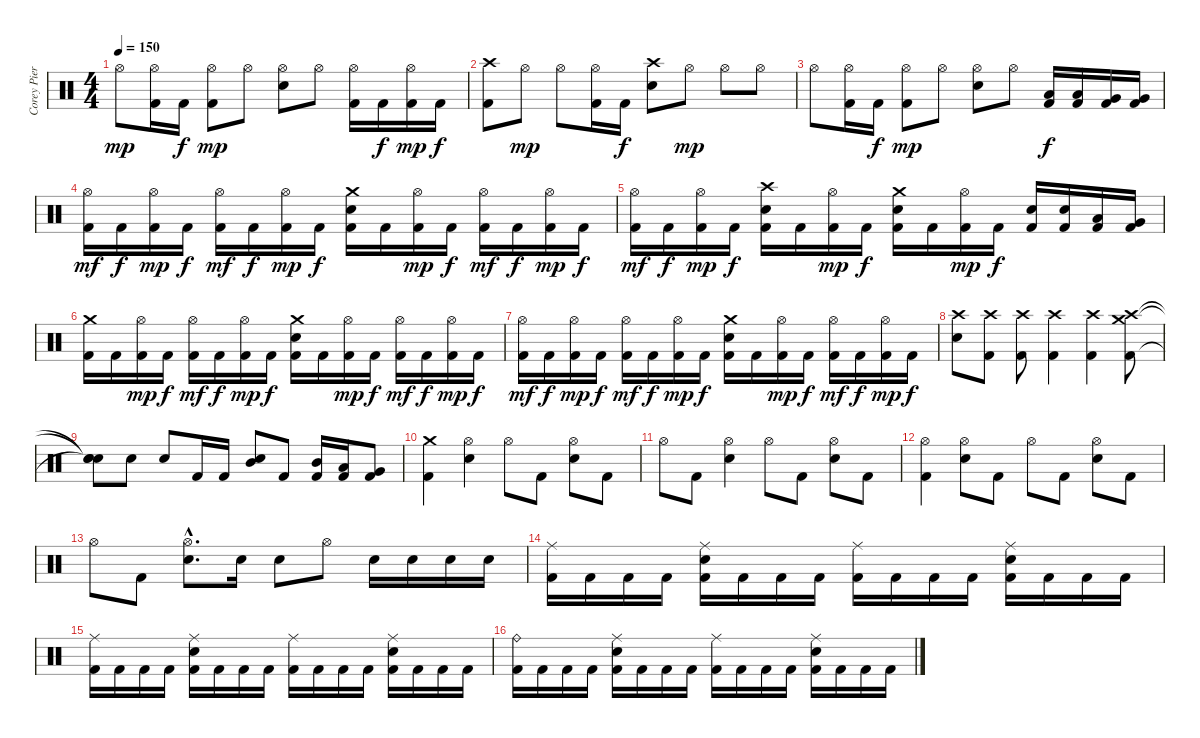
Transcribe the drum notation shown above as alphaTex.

\track ("Corey Pierce" "Corey Pier") {instrument percussion}
\staff {score}
\articulation defaults
\ts (4 4)
\tempo 150
\clef neutral
\ks c "Hi-Hat (open)".8{dy mp}
("Hi-Hat (open)" "Kick (hit) 2").16 "Kick (hit) 2".16{dy f} ("Hi-Hat (open)" "Kick (hit) 2").8{dy mp} "Hi-Hat (open)".8 ("Hi-Hat (open)" "Electric Snare (hit)").8 "Hi-Hat (open)".8 ("Hi-Hat (open)" "Kick (hit) 2").16 "Kick (hit) 2".16{dy f} ("Hi-Hat (open)" "Kick (hit) 2").16{dy mp} "Kick (hit) 2".16{dy f} |
("Crash high (hit)" "Kick (hit) 2").8 "Hi-Hat (open)".8{dy mp} "Hi-Hat (open)".8 ("Hi-Hat (open)" "Kick (hit) 2").16 "Kick (hit) 2".16{dy f} ("Crash high (hit)" "Electric Snare (hit)").8 "Hi-Hat (open)".8{dy mp} "Hi-Hat (open)".8 "Hi-Hat (open)".8 |
"Hi-Hat (open)".8 ("Hi-Hat (open)" "Kick (hit) 2").16 "Kick (hit) 2".16{dy f} ("Hi-Hat (open)" "Kick (hit) 2").8{dy mp} "Hi-Hat (open)".8 ("Hi-Hat (open)" "Electric Snare (hit)").8 "Hi-Hat (open)".8 ("Low Tom (hit)" "Kick (hit) 2").16{dy f} ("Low Tom (hit)" "Kick (hit) 2").16 ("Very Low Tom (hit)" "Kick (hit) 2").16 ("Very Low Tom (hit)" "Kick (hit) 2").16 |
("Hi-Hat (open)" "Kick (hit) 2").16{dy mf} "Kick (hit) 2".16{dy f} ("Hi-Hat (open)" "Kick (hit) 2").16{dy mp} "Kick (hit) 2".16{dy f} ("Hi-Hat (open)" "Kick (hit) 2").16{dy mf} "Kick (hit) 2".16{dy f} ("Hi-Hat (open)" "Kick (hit) 2").16{dy mp} "Kick (hit) 2".16{dy f} ("Crash medium (hit)" "Electric Snare (hit)" "Kick (hit) 2").16 "Kick (hit) 2".16 ("Hi-Hat (open)" "Kick (hit) 2").16{dy mp} "Kick (hit) 2".16{dy f} ("Hi-Hat (open)" "Kick (hit) 2").16{dy mf} "Kick (hit) 2".16{dy f} ("Hi-Hat (open)" "Kick (hit) 2").16{dy mp} "Kick (hit) 2".16{dy f} |
("Hi-Hat (open)" "Kick (hit) 2").16{dy mf} "Kick (hit) 2".16{dy f} ("Hi-Hat (open)" "Kick (hit) 2").16{dy mp} "Kick (hit) 2".16{dy f} ("Crash high (hit)" "Electric Snare (hit)" "Kick (hit) 2").16 "Kick (hit) 2".16 ("Hi-Hat (open)" "Kick (hit) 2").16{dy mp} "Kick (hit) 2".16{dy f} ("Crash medium (hit)" "Electric Snare (hit)" "Kick (hit) 2").16 "Kick (hit) 2".16 ("Hi-Hat (open)" "Kick (hit) 2").16{dy mp} "Kick (hit) 2".16{dy f} ("Electric Snare (hit)" "Kick (hit) 2").16 ("Electric Snare (hit)" "Kick (hit) 2").16 ("Low Tom (hit)" "Kick (hit) 2").16 ("Very Low Tom (hit)" "Kick (hit) 2").16 |
("Crash medium (hit)" "Kick (hit) 2").16 "Kick (hit) 2".16 ("Hi-Hat (open)" "Kick (hit) 2").16{dy mp} "Kick (hit) 2".16{dy f} ("Hi-Hat (open)" "Kick (hit) 2").16{dy mf} "Kick (hit) 2".16{dy f} ("Hi-Hat (open)" "Kick (hit) 2").16{dy mp} "Kick (hit) 2".16{dy f} ("Crash medium (hit)" "Electric Snare (hit)" "Kick (hit) 2").16 "Kick (hit) 2".16 ("Hi-Hat (open)" "Kick (hit) 2").16{dy mp} "Kick (hit) 2".16{dy f} ("Hi-Hat (open)" "Kick (hit) 2").16{dy mf} "Kick (hit) 2".16{dy f} ("Hi-Hat (open)" "Kick (hit) 2").16{dy mp} "Kick (hit) 2".16{dy f} |
("Hi-Hat (open)" "Kick (hit) 2").16{dy mf} "Kick (hit) 2".16{dy f} ("Hi-Hat (open)" "Kick (hit) 2").16{dy mp} "Kick (hit) 2".16{dy f} ("Hi-Hat (open)" "Kick (hit) 2").16{dy mf} "Kick (hit) 2".16{dy f} ("Hi-Hat (open)" "Kick (hit) 2").16{dy mp} "Kick (hit) 2".16{dy f} ("Crash medium (hit)" "Electric Snare (hit)" "Kick (hit) 2").16 "Kick (hit) 2".16 ("Hi-Hat (open)" "Kick (hit) 2").16{dy mp} "Kick (hit) 2".16{dy f} ("Hi-Hat (open)" "Kick (hit) 2").16{dy mf} "Kick (hit) 2".16{dy f} ("Hi-Hat (open)" "Kick (hit) 2").16{dy mp} "Kick (hit) 2".16{dy f} |
("Crash high (hit)" "Electric Snare (hit)").8 ("Crash high (hit)" "Kick (hit) 2").8 ("Crash high (hit)" "Kick (hit) 2").8 ("Crash high (hit)" "Kick (hit) 2").4 ("Crash high (hit)" "Kick (hit) 2").4 ("Crash high (hit)" "Crash medium (hit)" "Kick (hit) 2").8 |
("Snare (hit)"{t} "Snare (hit)"{t} "Snare (hit)"{t}).8 "Electric Snare (hit)".8 "Electric Snare (hit)".8 "Kick (hit) 2".16 "Kick (hit) 2".16 ("Mid Tom (hit)" "Electric Snare (hit)").8 "Kick (hit) 2".8 ("Mid Tom (hit)" "Kick (hit) 2").16 ("Low Tom (hit)" "Kick (hit) 2").16 ("Very Low Tom (hit)" "Kick (hit) 2").8 |
("Crash medium (hit)" "Kick (hit) 2").4 ("Hi-Hat (open)" "Electric Snare (hit)").4 "Hi-Hat (open)".8 "Kick (hit) 2".8 ("Hi-Hat (open)" "Electric Snare (hit)").8 "Kick (hit) 2".8 |
"Hi-Hat (open)".8 "Kick (hit) 2".8 ("Hi-Hat (open)" "Electric Snare (hit)").4 "Hi-Hat (open)".8 "Kick (hit) 2".8 ("Hi-Hat (open)" "Electric Snare (hit)").8 "Kick (hit) 2".8 |
("Hi-Hat (open)" "Kick (hit) 2").4 ("Hi-Hat (open)" "Electric Snare (hit)").8 "Kick (hit) 2".8 "Hi-Hat (open)".8 "Kick (hit) 2".8 ("Hi-Hat (open)" "Electric Snare (hit)").8 "Kick (hit) 2".8 |
"Hi-Hat (open)".8 "Kick (hit) 2".8 ("Hi-Hat (open)"{hac} "Electric Snare (hit)"{hac}).8{d} "Electric Snare (hit)".16 "Electric Snare (hit)".8 "Hi-Hat (open)".8 "Electric Snare (hit)".16 "Electric Snare (hit)".16 "Electric Snare (hit)".16 "Electric Snare (hit)".16 |
("Ride (middle)" "Kick (hit) 2").16 "Kick (hit) 2".16 "Kick (hit) 2".16 "Kick (hit) 2".16 ("Ride (middle)" "Electric Snare (hit)" "Kick (hit) 2").16 "Kick (hit) 2".16 "Kick (hit) 2".16 "Kick (hit) 2".16 ("Ride (middle)" "Kick (hit) 2").16 "Kick (hit) 2".16 "Kick (hit) 2".16 "Kick (hit) 2".16 ("Ride (middle)" "Electric Snare (hit)" "Kick (hit) 2").16 "Kick (hit) 2".16 "Kick (hit) 2".16 "Kick (hit) 2".16 |
("Ride (middle)" "Kick (hit) 2").16 "Kick (hit) 2".16 "Kick (hit) 2".16 "Kick (hit) 2".16 ("Ride (middle)" "Electric Snare (hit)" "Kick (hit) 2").16 "Kick (hit) 2".16 "Kick (hit) 2".16 "Kick (hit) 2".16 ("Ride (middle)" "Kick (hit) 2").16 "Kick (hit) 2".16 "Kick (hit) 2".16 "Kick (hit) 2".16 ("Ride (middle)" "Electric Snare (hit)" "Kick (hit) 2").16 "Kick (hit) 2".16 "Kick (hit) 2".16 "Kick (hit) 2".16 |
("Ride (bell)" "Kick (hit) 2").16 "Kick (hit) 2".16 "Kick (hit) 2".16 "Kick (hit) 2".16 ("Ride (middle)" "Electric Snare (hit)" "Kick (hit) 2").16 "Kick (hit) 2".16 "Kick (hit) 2".16 "Kick (hit) 2".16 ("Ride (middle)" "Kick (hit) 2").16 "Kick (hit) 2".16 "Kick (hit) 2".16 "Kick (hit) 2".16 ("Ride (middle)" "Electric Snare (hit)" "Kick (hit) 2").16 "Kick (hit) 2".16 "Kick (hit) 2".16 "Kick (hit) 2".16
